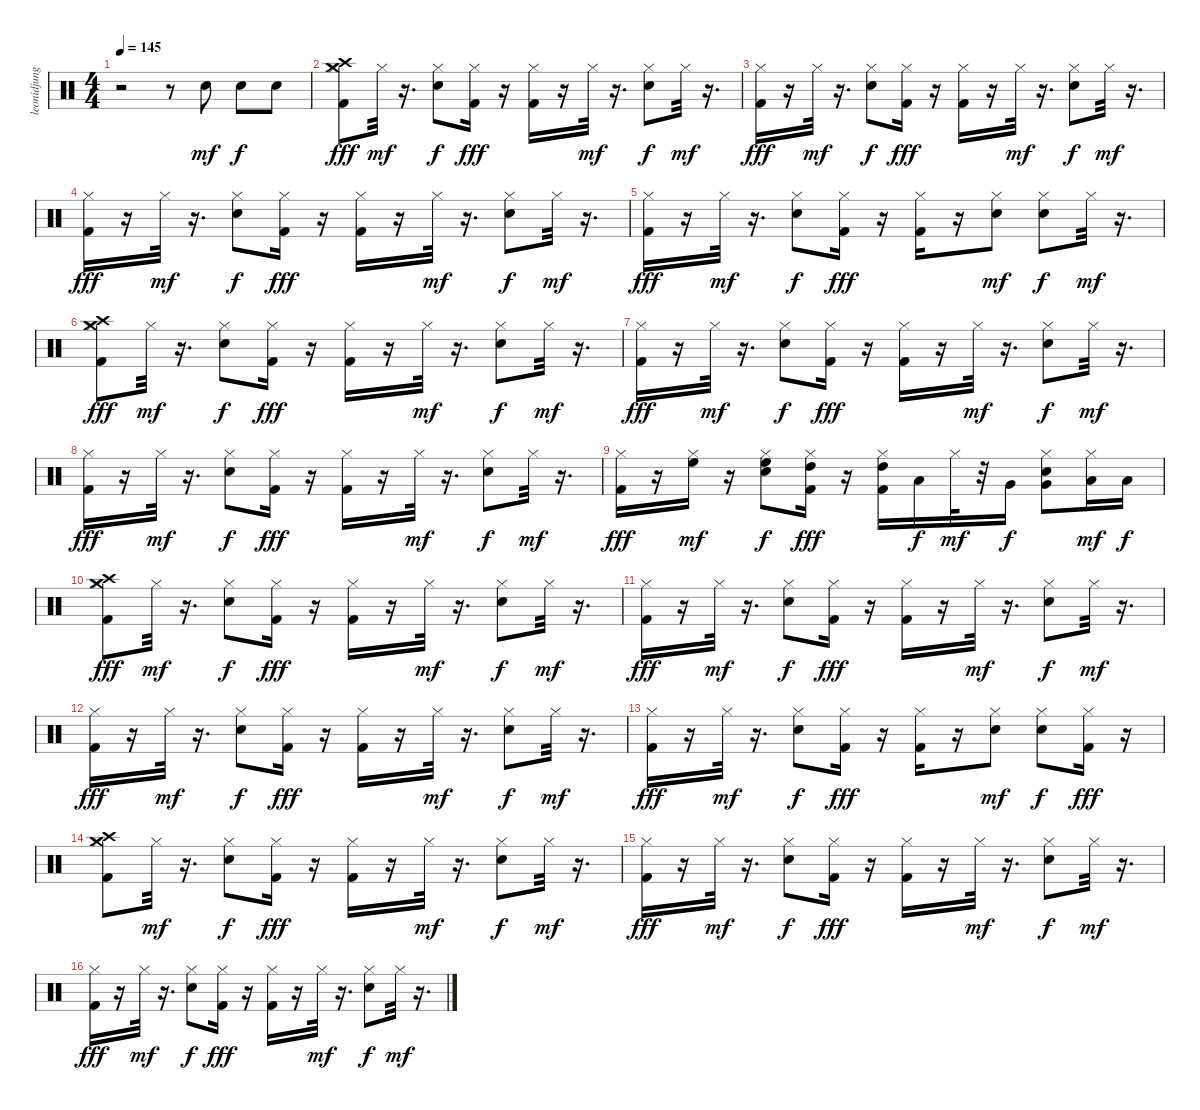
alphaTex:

\track ("leonidjung@freenet.de" "leonidjung") {instrument percussion}
\staff {score}
\articulation defaults
\ts (4 4)
\tempo 145
\clef neutral
\ks c
r.2{dy mf} r.8 "Snare (hit) 2".8 "Snare (hit) 2".8{dy f} "Snare (hit) 2".8 |
("Hi-Hat (closed)" "Crash high (hit)" "Crash medium (hit)" "Kick (hit) 2").8{dy fff} "Hi-Hat (closed)".32{dy mf} r.16{d} ("Snare (hit) 2" "Hi-Hat (closed)").8{dy f} ("Hi-Hat (closed)" "Kick (hit) 2").16{dy fff} r.16 ("Hi-Hat (closed)" "Kick (hit) 2").16 r.16 "Hi-Hat (closed)".32{dy mf} r.16{d} ("Snare (hit) 2" "Hi-Hat (closed)").8{dy f} "Hi-Hat (closed)".32{dy mf} r.16{d} |
("Hi-Hat (closed)" "Kick (hit) 2").16{dy fff} r.16 "Hi-Hat (closed)".32{dy mf} r.16{d} ("Snare (hit) 2" "Hi-Hat (closed)").8{dy f} ("Hi-Hat (closed)" "Kick (hit) 2").16{dy fff} r.16 ("Hi-Hat (closed)" "Kick (hit) 2").16 r.16 "Hi-Hat (closed)".32{dy mf} r.16{d} ("Snare (hit) 2" "Hi-Hat (closed)").8{dy f} "Hi-Hat (closed)".32{dy mf} r.16{d} |
("Hi-Hat (closed)" "Kick (hit) 2").16{dy fff} r.16 "Hi-Hat (closed)".32{dy mf} r.16{d} ("Snare (hit) 2" "Hi-Hat (closed)").8{dy f} ("Hi-Hat (closed)" "Kick (hit) 2").16{dy fff} r.16 ("Hi-Hat (closed)" "Kick (hit) 2").16 r.16 "Hi-Hat (closed)".32{dy mf} r.16{d} ("Snare (hit) 2" "Hi-Hat (closed)").8{dy f} "Hi-Hat (closed)".32{dy mf} r.16{d} |
("Hi-Hat (closed)" "Kick (hit) 2").16{dy fff} r.16 "Hi-Hat (closed)".32{dy mf} r.16{d} ("Snare (hit) 2" "Hi-Hat (closed)").8{dy f} ("Hi-Hat (closed)" "Kick (hit) 2").16{dy fff} r.16 ("Hi-Hat (closed)" "Kick (hit) 2").16 r.16 ("Snare (hit) 2" "Hi-Hat (closed)").8{dy mf} ("Snare (hit) 2" "Hi-Hat (closed)").8{dy f} "Hi-Hat (closed)".32{dy mf} r.16{d} |
("Hi-Hat (closed)" "Crash high (hit)" "Crash medium (hit)" "Kick (hit) 2").8{dy fff} "Hi-Hat (closed)".32{dy mf} r.16{d} ("Snare (hit) 2" "Hi-Hat (closed)").8{dy f} ("Hi-Hat (closed)" "Kick (hit) 2").16{dy fff} r.16 ("Hi-Hat (closed)" "Kick (hit) 2").16 r.16 "Hi-Hat (closed)".32{dy mf} r.16{d} ("Snare (hit) 2" "Hi-Hat (closed)").8{dy f} "Hi-Hat (closed)".32{dy mf} r.16{d} |
("Hi-Hat (closed)" "Kick (hit) 2").16{dy fff} r.16 "Hi-Hat (closed)".32{dy mf} r.16{d} ("Snare (hit) 2" "Hi-Hat (closed)").8{dy f} ("Hi-Hat (closed)" "Kick (hit) 2").16{dy fff} r.16 ("Hi-Hat (closed)" "Kick (hit) 2").16 r.16 "Hi-Hat (closed)".32{dy mf} r.16{d} ("Snare (hit) 2" "Hi-Hat (closed)").8{dy f} "Hi-Hat (closed)".32{dy mf} r.16{d} |
("Hi-Hat (closed)" "Kick (hit) 2").16{dy fff} r.16 "Hi-Hat (closed)".32{dy mf} r.16{d} ("Snare (hit) 2" "Hi-Hat (closed)").8{dy f} ("Hi-Hat (closed)" "Kick (hit) 2").16{dy fff} r.16 ("Hi-Hat (closed)" "Kick (hit) 2").16 r.16 "Hi-Hat (closed)".32{dy mf} r.16{d} ("Snare (hit) 2" "Hi-Hat (closed)").8{dy f} "Hi-Hat (closed)".32{dy mf} r.16{d} |
("Hi-Hat (closed)" "Kick (hit) 2").16{dy fff} r.16 ("High Floor Tom (hit)" "Hi-Hat (closed)").16{dy mf} r.16 ("High Floor Tom (hit)" "Snare (hit) 2" "Hi-Hat (closed)").8{dy f} ("High Tom (hit)" "Hi-Hat (closed)" "Kick (hit) 2").16{dy fff} r.16 ("High Tom (hit)" "Hi-Hat (closed)" "Kick (hit) 2").16 "Low Tom (hit)".16{dy f} "Hi-Hat (closed)".32{dy mf} r.32 "Very Low Tom (hit)".16{dy f} ("Very Low Tom (hit)" "Snare (hit) 2" "Hi-Hat (closed)").8 ("Low Floor Tom (hit)" "Hi-Hat (closed)").16{dy mf} "Low Floor Tom (hit)".16{dy f} |
("Hi-Hat (closed)" "Crash high (hit)" "Crash medium (hit)" "Kick (hit) 2").8{dy fff} "Hi-Hat (closed)".32{dy mf} r.16{d} ("Snare (hit) 2" "Hi-Hat (closed)").8{dy f} ("Hi-Hat (closed)" "Kick (hit) 2").16{dy fff} r.16 ("Hi-Hat (closed)" "Kick (hit) 2").16 r.16 "Hi-Hat (closed)".32{dy mf} r.16{d} ("Snare (hit) 2" "Hi-Hat (closed)").8{dy f} "Hi-Hat (closed)".32{dy mf} r.16{d} |
("Hi-Hat (closed)" "Kick (hit) 2").16{dy fff} r.16 "Hi-Hat (closed)".32{dy mf} r.16{d} ("Snare (hit) 2" "Hi-Hat (closed)").8{dy f} ("Hi-Hat (closed)" "Kick (hit) 2").16{dy fff} r.16 ("Hi-Hat (closed)" "Kick (hit) 2").16 r.16 "Hi-Hat (closed)".32{dy mf} r.16{d} ("Snare (hit) 2" "Hi-Hat (closed)").8{dy f} "Hi-Hat (closed)".32{dy mf} r.16{d} |
("Hi-Hat (closed)" "Kick (hit) 2").16{dy fff} r.16 "Hi-Hat (closed)".32{dy mf} r.16{d} ("Snare (hit) 2" "Hi-Hat (closed)").8{dy f} ("Hi-Hat (closed)" "Kick (hit) 2").16{dy fff} r.16 ("Hi-Hat (closed)" "Kick (hit) 2").16 r.16 "Hi-Hat (closed)".32{dy mf} r.16{d} ("Snare (hit) 2" "Hi-Hat (closed)").8{dy f} "Hi-Hat (closed)".32{dy mf} r.16{d} |
("Hi-Hat (closed)" "Kick (hit) 2").16{dy fff} r.16 "Hi-Hat (closed)".32{dy mf} r.16{d} ("Snare (hit) 2" "Hi-Hat (closed)").8{dy f} ("Hi-Hat (closed)" "Kick (hit) 2").16{dy fff} r.16 ("Hi-Hat (closed)" "Kick (hit) 2").16 r.16 ("Snare (hit) 2" "Hi-Hat (closed)").8{dy mf} ("Snare (hit) 2" "Hi-Hat (closed)").8{dy f} ("Hi-Hat (closed)" "Kick (hit) 2").16{dy fff} r.16 |
("Hi-Hat (closed)" "Crash high (hit)" "Crash medium (hit)" "Kick (hit) 2").8 "Hi-Hat (closed)".32{dy mf} r.16{d} ("Snare (hit) 2" "Hi-Hat (closed)").8{dy f} ("Hi-Hat (closed)" "Kick (hit) 2").16{dy fff} r.16 ("Hi-Hat (closed)" "Kick (hit) 2").16 r.16 "Hi-Hat (closed)".32{dy mf} r.16{d} ("Snare (hit) 2" "Hi-Hat (closed)").8{dy f} "Hi-Hat (closed)".32{dy mf} r.16{d} |
("Hi-Hat (closed)" "Kick (hit) 2").16{dy fff} r.16 "Hi-Hat (closed)".32{dy mf} r.16{d} ("Snare (hit) 2" "Hi-Hat (closed)").8{dy f} ("Hi-Hat (closed)" "Kick (hit) 2").16{dy fff} r.16 ("Hi-Hat (closed)" "Kick (hit) 2").16 r.16 "Hi-Hat (closed)".32{dy mf} r.16{d} ("Snare (hit) 2" "Hi-Hat (closed)").8{dy f} "Hi-Hat (closed)".32{dy mf} r.16{d} |
("Hi-Hat (closed)" "Kick (hit) 2").16{dy fff} r.16 "Hi-Hat (closed)".32{dy mf} r.16{d} ("Snare (hit) 2" "Hi-Hat (closed)").8{dy f} ("Hi-Hat (closed)" "Kick (hit) 2").16{dy fff} r.16 ("Hi-Hat (closed)" "Kick (hit) 2").16 r.16 "Hi-Hat (closed)".32{dy mf} r.16{d} ("Snare (hit) 2" "Hi-Hat (closed)").8{dy f} "Hi-Hat (closed)".32{dy mf} r.16{d}
